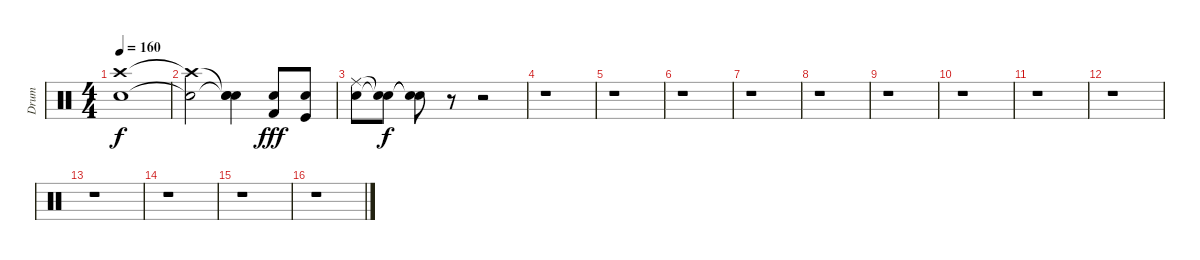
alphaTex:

\track ("Drum" "Drum") {instrument percussion}
\staff {score}
\articulation defaults
\ts (4 4)
\tempo 160
\clef neutral
\ks c
("Crash high (hit)" "Electric Snare (hit)").1{dy f} |
("Crash high (hit)"{t} "Electric Snare (hit)"{t}).2 ("Snare (hit)"{t} "Snare (hit)"{t} "Snare (hit)").4 ("Electric Snare (hit)" "Kick (hit) 2").8{dy fff} ("Snare (hit) 2" "Kick (hit)").8 |
("Ride (middle)" "Electric Snare (hit)").8{volume 0} ("Snare (hit)"{t} "Snare (hit)"{t}).8{dy f} ("Snare (hit)"{t} "Snare (hit)"{t}).8 r.8 r.2 |
r.1 |
r.1 |
r.1 |
r.1 |
r.1 |
r.1 |
r.1{volume 12} |
r.1 |
r.1 |
r.1 |
r.1 |
r.1 |
r.1
